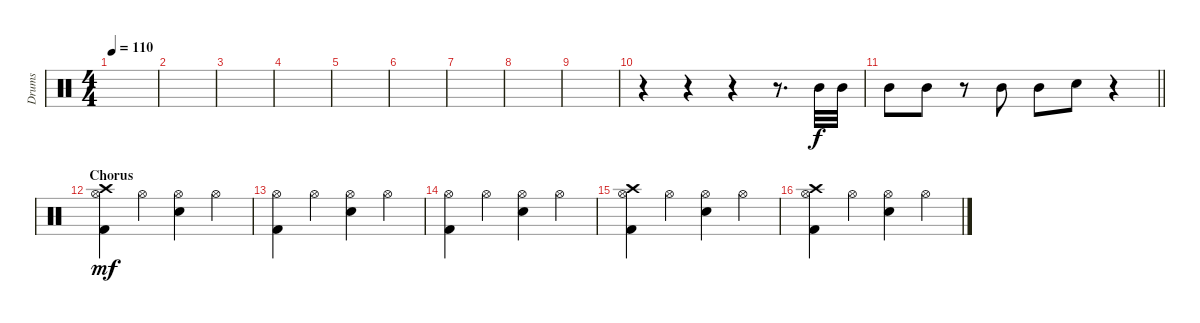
\track ("Drums" "Drums") {instrument percussion}
\staff {score}
\articulation defaults
\ts (4 4)
\tempo 110
\clef neutral
\ks c
|
|
|
|
|
|
|
|
|
r.4 r.4 r.4 r.8{d} "Mid Tom (hit)".32 "Mid Tom (hit)".32 |
\barLineRight lightlight "Mid Tom (hit)".8 "Mid Tom (hit)".8
r.8 "Mid Tom (hit)".8 "Mid Tom (hit)".8 "Snare (hit) 2".8 r.4 |
\section ("" "Chorus")
("Kick (hit) 2" "Hi-Hat (open)" "Crash high (hit)").4{dy mf} "Hi-Hat (open)".4 ("Snare (hit) 2" "Hi-Hat (open)").4 "Hi-Hat (open)".4 |
("Kick (hit) 2" "Hi-Hat (open)").4 "Hi-Hat (open)".4 ("Snare (hit) 2" "Hi-Hat (open)").4 "Hi-Hat (open)".4 |
("Kick (hit) 2" "Hi-Hat (open)").4 "Hi-Hat (open)".4 ("Snare (hit) 2" "Hi-Hat (open)").4 "Hi-Hat (open)".4 |
("Kick (hit) 2" "Hi-Hat (open)" "Crash high (hit)").4 "Hi-Hat (open)".4 ("Snare (hit) 2" "Hi-Hat (open)").4 "Hi-Hat (open)".4 |
("Kick (hit) 2" "Hi-Hat (open)" "Crash high (hit)").4 "Hi-Hat (open)".4 ("Snare (hit) 2" "Hi-Hat (open)").4 "Hi-Hat (open)".4
